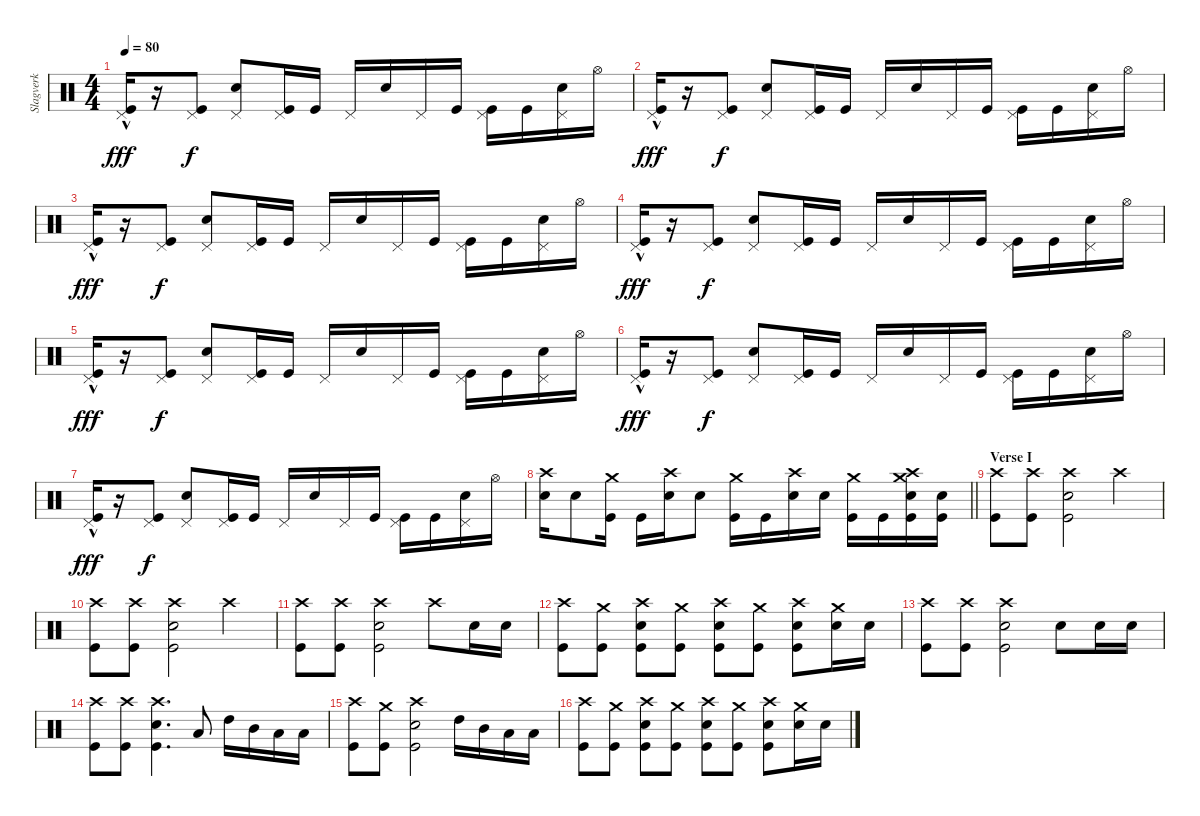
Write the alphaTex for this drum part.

\track ("Slagverk" "Slagverk") {instrument percussion}
\staff {score}
\articulation defaults
\ts (4 4)
\tempo 80
\clef neutral
\ks c
("Pedal Hi-Hat (hit)"{hac} "Kick (hit)").16{dy fff} r.16 ("Pedal Hi-Hat (hit)" "Kick (hit)").8{dy f} ("Pedal Hi-Hat (hit)" "Snare (hit) 2").8 ("Pedal Hi-Hat (hit)" "Kick (hit)").16 "Kick (hit)".16 "Pedal Hi-Hat (hit)".16 "Snare (hit) 2".16 "Pedal Hi-Hat (hit)".16 "Kick (hit)".16 ("Pedal Hi-Hat (hit)" "Kick (hit)").16 "Kick (hit)".16 ("Pedal Hi-Hat (hit)" "Snare (hit) 2").16 "Hi-Hat (open)".16 |
("Pedal Hi-Hat (hit)"{hac} "Kick (hit)").16{dy fff} r.16 ("Pedal Hi-Hat (hit)" "Kick (hit)").8{dy f} ("Pedal Hi-Hat (hit)" "Snare (hit) 2").8 ("Pedal Hi-Hat (hit)" "Kick (hit)").16 "Kick (hit)".16 "Pedal Hi-Hat (hit)".16 "Snare (hit) 2".16 "Pedal Hi-Hat (hit)".16 "Kick (hit)".16 ("Pedal Hi-Hat (hit)" "Kick (hit)").16 "Kick (hit)".16 ("Pedal Hi-Hat (hit)" "Snare (hit) 2").16 "Hi-Hat (open)".16 |
("Pedal Hi-Hat (hit)"{hac} "Kick (hit)").16{dy fff} r.16 ("Pedal Hi-Hat (hit)" "Kick (hit)").8{dy f} ("Pedal Hi-Hat (hit)" "Snare (hit) 2").8 ("Pedal Hi-Hat (hit)" "Kick (hit)").16 "Kick (hit)".16 "Pedal Hi-Hat (hit)".16 "Snare (hit) 2".16 "Pedal Hi-Hat (hit)".16 "Kick (hit)".16 ("Pedal Hi-Hat (hit)" "Kick (hit)").16 "Kick (hit)".16 ("Pedal Hi-Hat (hit)" "Snare (hit) 2").16 "Hi-Hat (open)".16 |
("Pedal Hi-Hat (hit)"{hac} "Kick (hit)").16{dy fff} r.16 ("Pedal Hi-Hat (hit)" "Kick (hit)").8{dy f} ("Pedal Hi-Hat (hit)" "Snare (hit) 2").8 ("Pedal Hi-Hat (hit)" "Kick (hit)").16 "Kick (hit)".16 "Pedal Hi-Hat (hit)".16 "Snare (hit) 2".16 "Pedal Hi-Hat (hit)".16 "Kick (hit)".16 ("Pedal Hi-Hat (hit)" "Kick (hit)").16 "Kick (hit)".16 ("Pedal Hi-Hat (hit)" "Snare (hit) 2").16 "Hi-Hat (open)".16 |
("Pedal Hi-Hat (hit)"{hac} "Kick (hit)").16{dy fff} r.16 ("Pedal Hi-Hat (hit)" "Kick (hit)").8{dy f} ("Pedal Hi-Hat (hit)" "Snare (hit) 2").8 ("Pedal Hi-Hat (hit)" "Kick (hit)").16 "Kick (hit)".16 "Pedal Hi-Hat (hit)".16 "Snare (hit) 2".16 "Pedal Hi-Hat (hit)".16 "Kick (hit)".16 ("Pedal Hi-Hat (hit)" "Kick (hit)").16 "Kick (hit)".16 ("Pedal Hi-Hat (hit)" "Snare (hit) 2").16 "Hi-Hat (open)".16 |
("Pedal Hi-Hat (hit)"{hac} "Kick (hit)").16{dy fff} r.16 ("Pedal Hi-Hat (hit)" "Kick (hit)").8{dy f} ("Pedal Hi-Hat (hit)" "Snare (hit) 2").8 ("Pedal Hi-Hat (hit)" "Kick (hit)").16 "Kick (hit)".16 "Pedal Hi-Hat (hit)".16 "Snare (hit) 2".16 "Pedal Hi-Hat (hit)".16 "Kick (hit)".16 ("Pedal Hi-Hat (hit)" "Kick (hit)").16 "Kick (hit)".16 ("Pedal Hi-Hat (hit)" "Snare (hit) 2").16 "Hi-Hat (open)".16 |
("Pedal Hi-Hat (hit)"{hac} "Kick (hit)").16{dy fff} r.16 ("Pedal Hi-Hat (hit)" "Kick (hit)").8{dy f} ("Pedal Hi-Hat (hit)" "Snare (hit) 2").8 ("Pedal Hi-Hat (hit)" "Kick (hit)").16 "Kick (hit)".16 "Pedal Hi-Hat (hit)".16 "Snare (hit) 2".16 "Pedal Hi-Hat (hit)".16 "Kick (hit)".16 ("Pedal Hi-Hat (hit)" "Kick (hit)").16 "Kick (hit)".16 ("Pedal Hi-Hat (hit)" "Snare (hit) 2").16 "Hi-Hat (open)".16 |
\barLineRight lightlight
("Crash high (hit)" "Snare (hit) 2").16 "Snare (hit) 2".8 ("Crash medium (hit)" "Kick (hit)").16 "Kick (hit)".16 ("Crash high (hit)" "Snare (hit) 2").16 "Snare (hit) 2".8 ("Crash medium (hit)" "Kick (hit)").16 "Kick (hit)".16 ("Crash high (hit)" "Snare (hit) 2").16 "Snare (hit) 2".16 ("Crash medium (hit)" "Kick (hit)").16 "Kick (hit)".16 ("Crash high (hit)" "Crash medium (hit)" "Snare (hit) 2" "Kick (hit)").16 ("Snare (hit) 2" "Kick (hit)").16 |
\section ("" "Verse I")
("Crash high (hit)" "Kick (hit)").8 ("Crash high (hit)" "Kick (hit)").8 ("Crash high (hit)" "Snare (hit) 2" "Kick (hit)").2 "Crash high (hit)".4 |
("Crash high (hit)" "Kick (hit)").8 ("Crash high (hit)" "Kick (hit)").8 ("Crash high (hit)" "Snare (hit) 2" "Kick (hit)").2 "Crash high (hit)".4 |
("Crash high (hit)" "Kick (hit)").8 ("Crash high (hit)" "Kick (hit)").8 ("Crash high (hit)" "Snare (hit) 2" "Kick (hit)").2 "Crash high (hit)".8 "Snare (hit) 2".16 "Snare (hit) 2".16 |
("Crash high (hit)" "Kick (hit)").8 ("Crash medium (hit)" "Kick (hit)").8 ("Crash high (hit)" "Snare (hit) 2" "Kick (hit)").8 ("Crash medium (hit)" "Kick (hit)").8 ("Crash high (hit)" "Snare (hit) 2" "Kick (hit)").8 ("Crash medium (hit)" "Kick (hit)").8 ("Crash high (hit)" "Snare (hit) 2" "Kick (hit)").8 ("Crash medium (hit)" "Snare (hit) 2").16 "Snare (hit) 2".16 |
("Crash high (hit)" "Kick (hit)").8 ("Crash high (hit)" "Kick (hit)").8 ("Crash high (hit)" "Snare (hit) 2" "Kick (hit)").2 "Snare (hit) 2".8 "Snare (hit) 2".16 "Snare (hit) 2".16 |
("Crash high (hit)" "Kick (hit)").8 ("Crash high (hit)" "Kick (hit)").8 ("Crash high (hit)" "Snare (hit) 2" "Kick (hit)").4{d} "Low Floor Tom (hit)".8 "High Tom (hit)".16 "Mid Tom (hit)".16 "Low Tom (hit)".16 "Low Floor Tom (hit)".16 |
("Crash high (hit)" "Kick (hit)").8 ("Crash medium (hit)" "Kick (hit)").8 ("Crash high (hit)" "Snare (hit) 2" "Kick (hit)").2 "High Tom (hit)".16 "Mid Tom (hit)".16 "Low Tom (hit)".16 "Low Floor Tom (hit)".16 |
("Crash high (hit)" "Kick (hit)").8 ("Crash medium (hit)" "Kick (hit)").8 ("Crash high (hit)" "Snare (hit) 2" "Kick (hit)").8 ("Crash medium (hit)" "Kick (hit)").8 ("Crash high (hit)" "Snare (hit) 2" "Kick (hit)").8 ("Crash medium (hit)" "Kick (hit)").8 ("Crash high (hit)" "Snare (hit) 2" "Kick (hit)").8 ("Crash medium (hit)" "Snare (hit) 2").16 "Snare (hit) 2".16
